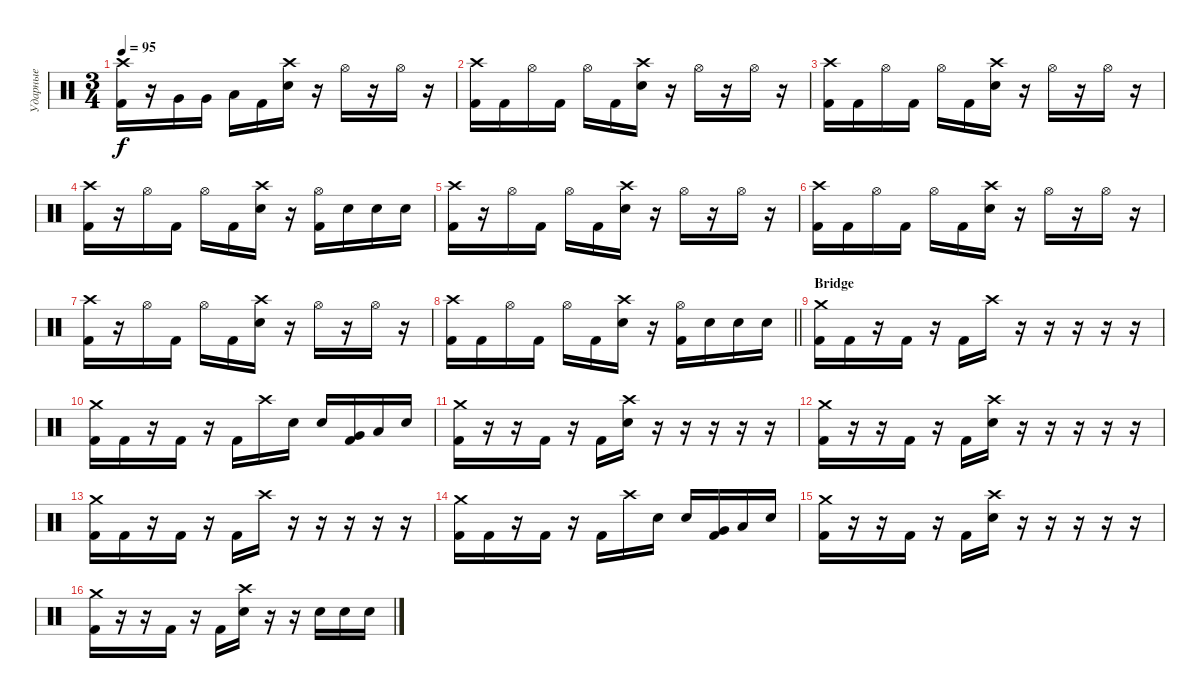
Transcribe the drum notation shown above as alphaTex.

\track ("Ударные" "Ударные") {instrument percussion}
\staff {score}
\articulation defaults
\ts (3 4)
\tempo 95
\clef neutral
\ks c
("Crash high (hit)" "Kick (hit) 2").16{dy f} r.16 "Very Low Tom (hit)".16 "Very Low Tom (hit)".16 "Low Floor Tom (hit)".16 "Kick (hit) 2".16 ("Crash high (hit)" "Electric Snare (hit)").16 r.16 "Hi-Hat (open)".16 r.16 "Hi-Hat (open)".16 r.16 |
("Crash high (hit)" "Kick (hit) 2").16 "Kick (hit) 2".16 "Hi-Hat (open)".16 "Kick (hit) 2".16 "Hi-Hat (open)".16 "Kick (hit) 2".16 ("Crash high (hit)" "Electric Snare (hit)").16 r.16 "Hi-Hat (open)".16 r.16 "Hi-Hat (open)".16 r.16 |
("Crash high (hit)" "Kick (hit) 2").16 "Kick (hit) 2".16 "Hi-Hat (open)".16 "Kick (hit) 2".16 "Hi-Hat (open)".16 "Kick (hit) 2".16 ("Crash high (hit)" "Electric Snare (hit)").16 r.16 "Hi-Hat (open)".16 r.16 "Hi-Hat (open)".16 r.16 |
("Crash high (hit)" "Kick (hit) 2").16 r.16 "Hi-Hat (open)".16 "Kick (hit) 2".16 "Hi-Hat (open)".16 "Kick (hit) 2".16 ("Crash high (hit)" "Electric Snare (hit)").16 r.16 ("Hi-Hat (open)" "Kick (hit) 2").16 "Electric Snare (hit)".16 "Electric Snare (hit)".16 "Electric Snare (hit)".16 |
("Crash high (hit)" "Kick (hit) 2").16 r.16 "Hi-Hat (open)".16 "Kick (hit) 2".16 "Hi-Hat (open)".16 "Kick (hit) 2".16 ("Crash high (hit)" "Electric Snare (hit)").16 r.16 "Hi-Hat (open)".16 r.16 "Hi-Hat (open)".16 r.16 |
("Crash high (hit)" "Kick (hit) 2").16 "Kick (hit) 2".16 "Hi-Hat (open)".16 "Kick (hit) 2".16 "Hi-Hat (open)".16 "Kick (hit) 2".16 ("Crash high (hit)" "Electric Snare (hit)").16 r.16 "Hi-Hat (open)".16 r.16 "Hi-Hat (open)".16 r.16 |
("Crash high (hit)" "Kick (hit) 2").16 r.16 "Hi-Hat (open)".16 "Kick (hit) 2".16 "Hi-Hat (open)".16 "Kick (hit) 2".16 ("Crash high (hit)" "Electric Snare (hit)").16 r.16 "Hi-Hat (open)".16 r.16 "Hi-Hat (open)".16 r.16 |
\barLineRight lightlight
("Crash high (hit)" "Kick (hit) 2").16 "Kick (hit) 2".16 "Hi-Hat (open)".16 "Kick (hit) 2".16 "Hi-Hat (open)".16 "Kick (hit) 2".16 ("Crash high (hit)" "Electric Snare (hit)").16 r.16 ("Hi-Hat (open)" "Kick (hit) 2").16 "Electric Snare (hit)".16 "Electric Snare (hit)".16 "Electric Snare (hit)".16 |
\section ("" "Bridge")
("Crash medium (hit)" "Kick (hit) 2").16 "Kick (hit) 2".16 r.16 "Kick (hit) 2".16 r.16 "Kick (hit) 2".16 "Crash high (hit)".16 r.16 r.16 r.16 r.16 r.16 |
("Crash medium (hit)" "Kick (hit) 2").16 "Kick (hit) 2".16 r.16 "Kick (hit) 2".16 r.16 "Kick (hit) 2".16 "Crash high (hit)".16 "Electric Snare (hit)".16 "Electric Snare (hit)".16 ("Very Low Tom (hit)" "Kick (hit) 2").16 "Low Tom (hit)".16 "Electric Snare (hit)".16 |
("Crash medium (hit)" "Kick (hit) 2").16 r.16 r.16 "Kick (hit) 2".16 r.16 "Kick (hit) 2".16 ("Crash high (hit)" "Electric Snare (hit)").16 r.16 r.16 r.16 r.16 r.16 |
("Crash medium (hit)" "Kick (hit) 2").16 r.16 r.16 "Kick (hit) 2".16 r.16 "Kick (hit) 2".16 ("Crash high (hit)" "Electric Snare (hit)").16 r.16 r.16 r.16 r.16 r.16 |
("Crash medium (hit)" "Kick (hit) 2").16 "Kick (hit) 2".16 r.16 "Kick (hit) 2".16 r.16 "Kick (hit) 2".16 "Crash high (hit)".16 r.16 r.16 r.16 r.16 r.16 |
("Crash medium (hit)" "Kick (hit) 2").16 "Kick (hit) 2".16 r.16 "Kick (hit) 2".16 r.16 "Kick (hit) 2".16 "Crash high (hit)".16 "Electric Snare (hit)".16 "Electric Snare (hit)".16 ("Very Low Tom (hit)" "Kick (hit) 2").16 "Low Tom (hit)".16 "Electric Snare (hit)".16 |
("Crash medium (hit)" "Kick (hit) 2").16 r.16 r.16 "Kick (hit) 2".16 r.16 "Kick (hit) 2".16 ("Crash high (hit)" "Electric Snare (hit)").16 r.16 r.16 r.16 r.16 r.16 |
("Crash medium (hit)" "Kick (hit) 2").16 r.16 r.16 "Kick (hit) 2".16 r.16 "Kick (hit) 2".16 ("Crash high (hit)" "Electric Snare (hit)").16 r.16 r.16 "Electric Snare (hit)".16 "Electric Snare (hit)".16 "Electric Snare (hit)".16
